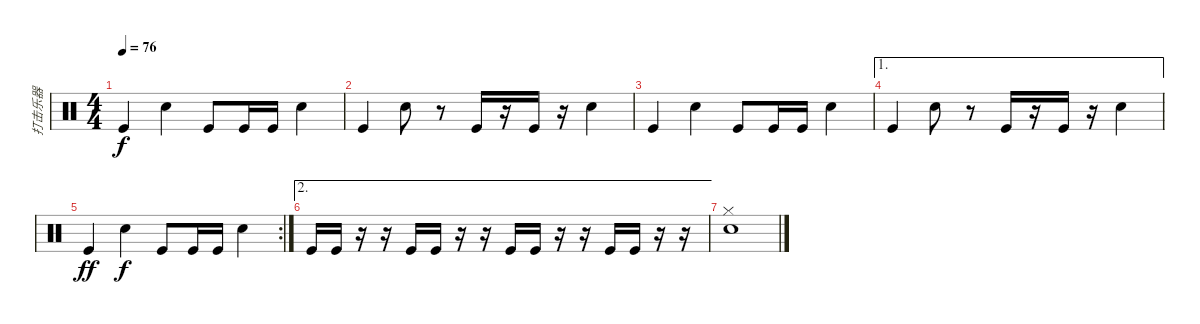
\track ("打击乐器" "打击乐器") {instrument percussion}
\staff {score}
\articulation defaults
\ts (4 4)
\tempo 76
\clef neutral
\ks c "Kick (hit)".4{dy f} "Snare (hit) 2".4 "Kick (hit)".8 "Kick (hit)".16 "Kick (hit)".16 "Snare (hit) 2".4
|
"Kick (hit)".4 "Snare (hit) 2".8 r.8 "Kick (hit)".16 r.16 "Kick (hit)".16 r.16 "Snare (hit) 2".4 |
"Kick (hit)".4 "Snare (hit) 2".4 "Kick (hit)".8 "Kick (hit)".16 "Kick (hit)".16 "Snare (hit) 2".4 |
\ae 1 "Kick (hit)".4 "Snare (hit) 2".8
r.8 "Kick (hit)".16 r.16 "Kick (hit)".16 r.16 "Snare (hit) 2".4 |
\rc 2 "Kick (hit)".4{dy ff} "Snare (hit) 2".4{dy f} "Kick (hit)".8 "Kick (hit)".16 "Kick (hit)".16 "Snare (hit) 2".4
|
\ae 2 "Kick (hit)".16 "Kick (hit)".16
r.16 r.16 "Kick (hit)".16 "Kick (hit)".16 r.16 r.16 "Kick (hit)".16 "Kick (hit)".16 r.16 r.16 "Kick (hit)".16 "Kick (hit)".16 r.16 r.16 |
("Snare (hit) 2" "Hi-Hat (closed)").1
